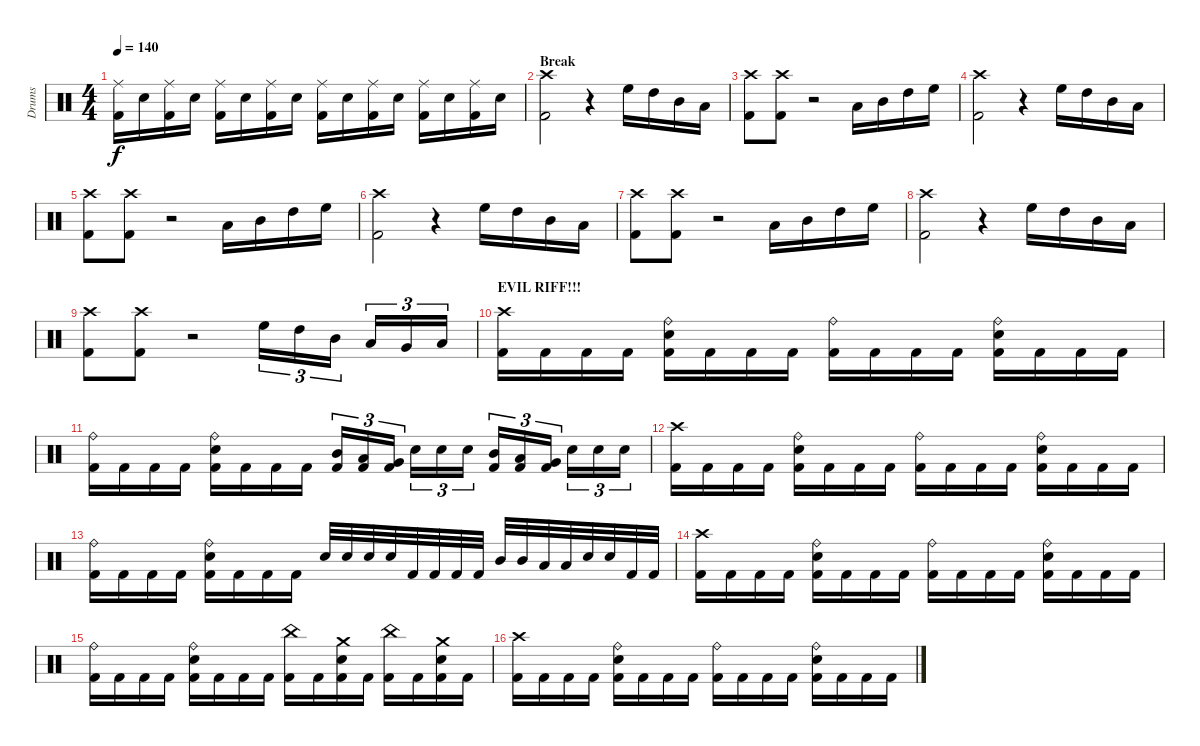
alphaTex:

\track ("Drums" "Drums") {instrument percussion}
\staff {score}
\articulation defaults
\ts (4 4)
\tempo 140
\clef neutral
\ks c
("Ride (middle)" "Kick (hit) 2").16{dy f} "Electric Snare (hit)".16 ("Ride (middle)" "Kick (hit) 2").16 "Electric Snare (hit)".16 ("Ride (middle)" "Kick (hit) 2").16 "Electric Snare (hit)".16 ("Ride (middle)" "Kick (hit) 2").16 "Electric Snare (hit)".16 ("Ride (middle)" "Kick (hit) 2").16 "Electric Snare (hit)".16 ("Ride (middle)" "Kick (hit) 2").16 "Electric Snare (hit)".16 ("Ride (middle)" "Kick (hit) 2").16 "Electric Snare (hit)".16 ("Ride (middle)" "Kick (hit) 2").16 "Electric Snare (hit)".16 |
\section ("" "Break")
("Crash high (hit)" "Kick (hit) 2").2 r.4 "High Floor Tom (hit)".16 "High Tom (hit)".16 "Mid Tom (hit)".16 "Low Tom (hit)".16 |
("Crash high (hit)" "Kick (hit) 2").8 ("Crash high (hit)" "Kick (hit) 2").8 r.2 "Low Tom (hit)".16 "Mid Tom (hit)".16 "High Tom (hit)".16 "High Floor Tom (hit)".16 |
("Crash high (hit)" "Kick (hit) 2").2 r.4 "High Floor Tom (hit)".16 "High Tom (hit)".16 "Mid Tom (hit)".16 "Low Tom (hit)".16 |
("Crash high (hit)" "Kick (hit) 2").8 ("Crash high (hit)" "Kick (hit) 2").8 r.2 "Low Tom (hit)".16 "Mid Tom (hit)".16 "High Tom (hit)".16 "High Floor Tom (hit)".16 |
("Crash high (hit)" "Kick (hit) 2").2 r.4 "High Floor Tom (hit)".16 "High Tom (hit)".16 "Mid Tom (hit)".16 "Low Tom (hit)".16 |
("Crash high (hit)" "Kick (hit) 2").8 ("Crash high (hit)" "Kick (hit) 2").8 r.2 "Low Tom (hit)".16 "Mid Tom (hit)".16 "High Tom (hit)".16 "High Floor Tom (hit)".16 |
("Crash high (hit)" "Kick (hit) 2").2 r.4 "High Floor Tom (hit)".16 "High Tom (hit)".16 "Mid Tom (hit)".16 "Low Tom (hit)".16 |
("Crash high (hit)" "Kick (hit) 2").8 ("Crash high (hit)" "Kick (hit) 2").8 r.2 "High Floor Tom (hit)".16{tu (3 2)} "High Tom (hit)".16{tu (3 2)} "Mid Tom (hit)".16{tu (3 2)} "Low Tom (hit)".16{tu (3 2)} "Very Low Tom (hit)".16{tu (3 2)} "Low Floor Tom (hit)".16{tu (3 2)} |
\section ("" "EVIL RIFF!!!")
("Crash high (hit)" "Kick (hit) 2").16 "Kick (hit) 2".16 "Kick (hit) 2".16 "Kick (hit) 2".16 ("Ride (bell)" "Electric Snare (hit)" "Kick (hit) 2").16 "Kick (hit) 2".16 "Kick (hit) 2".16 "Kick (hit) 2".16 ("Ride (bell)" "Kick (hit) 2").16 "Kick (hit) 2".16 "Kick (hit) 2".16 "Kick (hit) 2".16 ("Ride (bell)" "Electric Snare (hit)" "Kick (hit) 2").16 "Kick (hit) 2".16 "Kick (hit) 2".16 "Kick (hit) 2".16 |
("Ride (bell)" "Kick (hit) 2").16 "Kick (hit) 2".16 "Kick (hit) 2".16 "Kick (hit) 2".16 ("Ride (bell)" "Electric Snare (hit)" "Kick (hit) 2").16 "Kick (hit) 2".16 "Kick (hit) 2".16 "Kick (hit) 2".16 ("Mid Tom (hit)" "Kick (hit) 2").16{tu (3 2)} ("Low Tom (hit)" "Kick (hit) 2").16{tu (3 2)} ("Very Low Tom (hit)" "Kick (hit) 2").16{tu (3 2)} "Electric Snare (hit)".16{tu (3 2)} "Electric Snare (hit)".16{tu (3 2)} "Electric Snare (hit)".16{tu (3 2)} ("Mid Tom (hit)" "Kick (hit) 2").16{tu (3 2)} ("Low Tom (hit)" "Kick (hit) 2").16{tu (3 2)} ("Very Low Tom (hit)" "Kick (hit) 2").16{tu (3 2)} "Electric Snare (hit)".16{tu (3 2)} "Electric Snare (hit)".16{tu (3 2)} "Electric Snare (hit)".16{tu (3 2)} |
("Crash high (hit)" "Kick (hit) 2").16 "Kick (hit) 2".16 "Kick (hit) 2".16 "Kick (hit) 2".16 ("Ride (bell)" "Electric Snare (hit)" "Kick (hit) 2").16 "Kick (hit) 2".16 "Kick (hit) 2".16 "Kick (hit) 2".16 ("Ride (bell)" "Kick (hit) 2").16 "Kick (hit) 2".16 "Kick (hit) 2".16 "Kick (hit) 2".16 ("Ride (bell)" "Electric Snare (hit)" "Kick (hit) 2").16 "Kick (hit) 2".16 "Kick (hit) 2".16 "Kick (hit) 2".16 |
("Ride (bell)" "Kick (hit) 2").16 "Kick (hit) 2".16 "Kick (hit) 2".16 "Kick (hit) 2".16 ("Ride (bell)" "Electric Snare (hit)" "Kick (hit) 2").16 "Kick (hit) 2".16 "Kick (hit) 2".16 "Kick (hit) 2".16 "Electric Snare (hit)".32 "Electric Snare (hit)".32 "Electric Snare (hit)".32 "Electric Snare (hit)".32 "Kick (hit) 2".32 "Kick (hit) 2".32 "Kick (hit) 2".32 "Kick (hit) 2".32 "Mid Tom (hit)".32 "Mid Tom (hit)".32 "Low Tom (hit)".32 "Low Tom (hit)".32 "Electric Snare (hit)".32 "Electric Snare (hit)".32 "Kick (hit) 2".32 "Kick (hit) 2".32 |
("Crash high (hit)" "Kick (hit) 2").16 "Kick (hit) 2".16 "Kick (hit) 2".16 "Kick (hit) 2".16 ("Ride (bell)" "Electric Snare (hit)" "Kick (hit) 2").16 "Kick (hit) 2".16 "Kick (hit) 2".16 "Kick (hit) 2".16 ("Ride (bell)" "Kick (hit) 2").16 "Kick (hit) 2".16 "Kick (hit) 2".16 "Kick (hit) 2".16 ("Ride (bell)" "Electric Snare (hit)" "Kick (hit) 2").16 "Kick (hit) 2".16 "Kick (hit) 2".16 "Kick (hit) 2".16 |
("Ride (bell)" "Kick (hit) 2").16 "Kick (hit) 2".16 "Kick (hit) 2".16 "Kick (hit) 2".16 ("Ride (bell)" "Electric Snare (hit)" "Kick (hit) 2").16 "Kick (hit) 2".16 "Kick (hit) 2".16 "Kick (hit) 2".16 ("China (hit)" "Kick (hit) 2").16 "Kick (hit) 2".16 ("Crash medium (hit)" "Electric Snare (hit)" "Kick (hit) 2").16 "Kick (hit) 2".16 ("China (hit)" "Kick (hit) 2").16 "Kick (hit) 2".16 ("Crash medium (hit)" "Electric Snare (hit)" "Kick (hit) 2").16 "Kick (hit) 2".16 |
("Crash high (hit)" "Kick (hit) 2").16 "Kick (hit) 2".16 "Kick (hit) 2".16 "Kick (hit) 2".16 ("Ride (bell)" "Electric Snare (hit)" "Kick (hit) 2").16 "Kick (hit) 2".16 "Kick (hit) 2".16 "Kick (hit) 2".16 ("Ride (bell)" "Kick (hit) 2").16 "Kick (hit) 2".16 "Kick (hit) 2".16 "Kick (hit) 2".16 ("Ride (bell)" "Electric Snare (hit)" "Kick (hit) 2").16 "Kick (hit) 2".16 "Kick (hit) 2".16 "Kick (hit) 2".16
